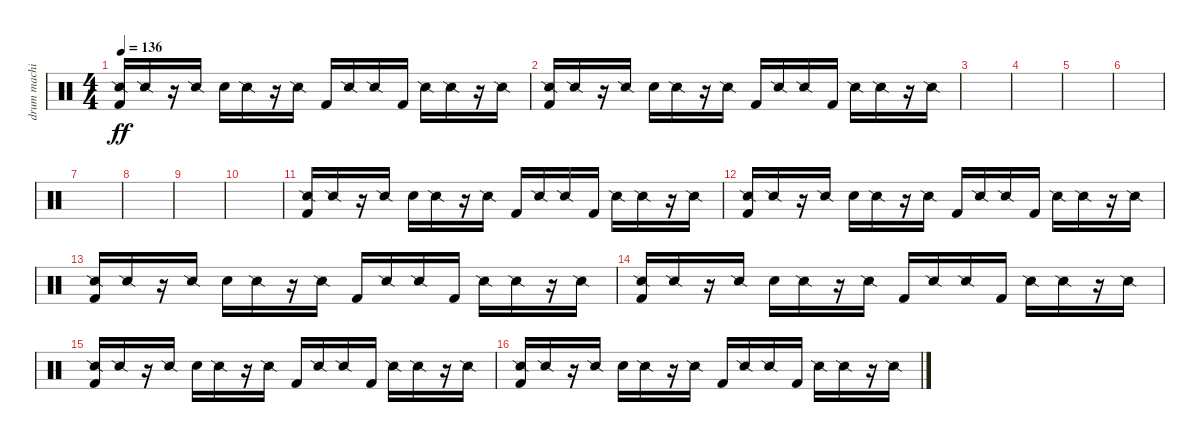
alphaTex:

\track ("drum machine" "drum machi") {instrument percussion}
\staff {score}
\articulation defaults
\ts (4 4)
\tempo 136
\clef neutral
\ks c
("Snare (side stick) 2" "Kick (hit) 2").16{dy ff} "Snare (side stick) 2".16 r.16 "Snare (side stick) 2".16 "Electric Snare (hit)".16 "Snare (side stick) 2".16 r.16 "Snare (side stick) 2".16 "Kick (hit) 2".16 "Snare (side stick) 2".16 "Snare (side stick) 2".16 "Kick (hit) 2".16 "Snare (side stick) 2".16 "Snare (side stick) 2".16 r.16 "Snare (side stick) 2".16 |
("Snare (side stick) 2" "Kick (hit) 2").16 "Snare (side stick) 2".16 r.16 "Snare (side stick) 2".16 "Electric Snare (hit)".16 "Snare (side stick) 2".16 r.16 "Snare (side stick) 2".16 "Kick (hit) 2".16 "Snare (side stick) 2".16 "Snare (side stick) 2".16 "Kick (hit) 2".16 "Snare (side stick) 2".16 "Snare (side stick) 2".16 r.16 "Snare (side stick) 2".16 |
|
|
|
|
|
|
|
|
("Snare (side stick) 2" "Kick (hit) 2").16 "Snare (side stick) 2".16 r.16 "Snare (side stick) 2".16 "Electric Snare (hit)".16 "Snare (side stick) 2".16 r.16 "Snare (side stick) 2".16 "Kick (hit) 2".16 "Snare (side stick) 2".16 "Snare (side stick) 2".16 "Kick (hit) 2".16 "Snare (side stick) 2".16 "Snare (side stick) 2".16 r.16 "Snare (side stick) 2".16 |
("Snare (side stick) 2" "Kick (hit) 2").16 "Snare (side stick) 2".16 r.16 "Snare (side stick) 2".16 "Electric Snare (hit)".16 "Snare (side stick) 2".16 r.16 "Snare (side stick) 2".16 "Kick (hit) 2".16 "Snare (side stick) 2".16 "Snare (side stick) 2".16 "Kick (hit) 2".16 "Snare (side stick) 2".16 "Snare (side stick) 2".16 r.16 "Snare (side stick) 2".16 |
("Snare (side stick) 2" "Kick (hit) 2").16 "Snare (side stick) 2".16 r.16 "Snare (side stick) 2".16 "Electric Snare (hit)".16 "Snare (side stick) 2".16 r.16 "Snare (side stick) 2".16 "Kick (hit) 2".16 "Snare (side stick) 2".16 "Snare (side stick) 2".16 "Kick (hit) 2".16 "Snare (side stick) 2".16 "Snare (side stick) 2".16 r.16 "Snare (side stick) 2".16 |
("Snare (side stick) 2" "Kick (hit) 2").16 "Snare (side stick) 2".16 r.16 "Snare (side stick) 2".16 "Electric Snare (hit)".16 "Snare (side stick) 2".16 r.16 "Snare (side stick) 2".16 "Kick (hit) 2".16 "Snare (side stick) 2".16 "Snare (side stick) 2".16 "Kick (hit) 2".16 "Snare (side stick) 2".16 "Snare (side stick) 2".16 r.16 "Snare (side stick) 2".16 |
("Snare (side stick) 2" "Kick (hit) 2").16 "Snare (side stick) 2".16 r.16 "Snare (side stick) 2".16 "Electric Snare (hit)".16 "Snare (side stick) 2".16 r.16 "Snare (side stick) 2".16 "Kick (hit) 2".16 "Snare (side stick) 2".16 "Snare (side stick) 2".16 "Kick (hit) 2".16 "Snare (side stick) 2".16 "Snare (side stick) 2".16 r.16 "Snare (side stick) 2".16 |
("Snare (side stick) 2" "Kick (hit) 2").16 "Snare (side stick) 2".16 r.16 "Snare (side stick) 2".16 "Electric Snare (hit)".16 "Snare (side stick) 2".16 r.16 "Snare (side stick) 2".16 "Kick (hit) 2".16 "Snare (side stick) 2".16 "Snare (side stick) 2".16 "Kick (hit) 2".16 "Snare (side stick) 2".16 "Snare (side stick) 2".16 r.16 "Snare (side stick) 2".16
